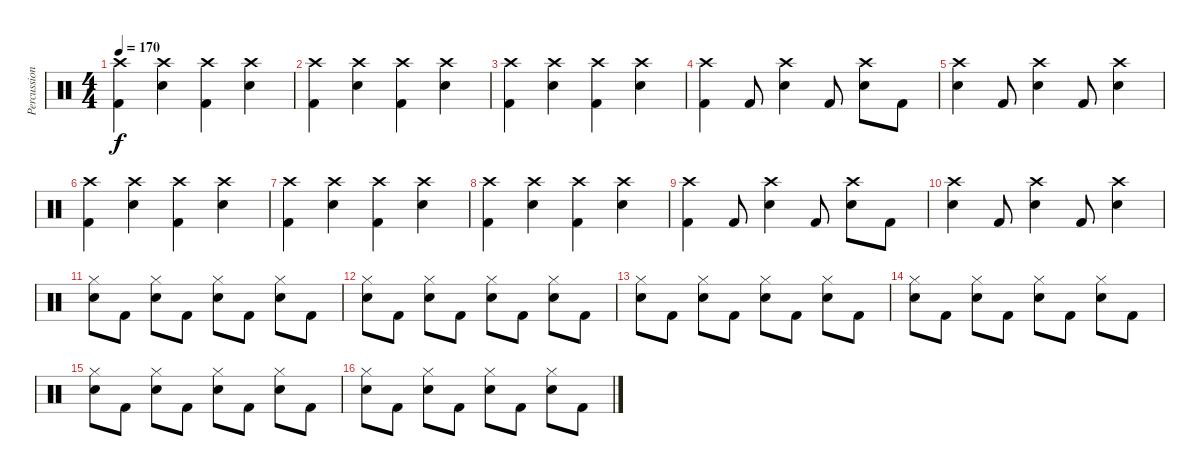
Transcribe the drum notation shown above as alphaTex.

\track ("Percussion" "Percussion") {instrument percussion}
\staff {score}
\articulation defaults
\ts (4 4)
\tempo 170
\clef neutral
\ks c
("Crash high (hit)" "Kick (hit) 2").4{dy f} ("Crash high (hit)" "Electric Snare (hit)").4 ("Crash high (hit)" "Kick (hit) 2").4 ("Crash high (hit)" "Electric Snare (hit)").4 |
("Crash high (hit)" "Kick (hit) 2").4 ("Crash high (hit)" "Electric Snare (hit)").4 ("Crash high (hit)" "Kick (hit) 2").4 ("Crash high (hit)" "Electric Snare (hit)").4 |
("Crash high (hit)" "Kick (hit) 2").4 ("Crash high (hit)" "Electric Snare (hit)").4 ("Crash high (hit)" "Kick (hit) 2").4 ("Crash high (hit)" "Electric Snare (hit)").4 |
("Crash high (hit)" "Kick (hit) 2").4 "Kick (hit) 2".8 ("Crash high (hit)" "Electric Snare (hit)").4 "Kick (hit) 2".8 ("Crash high (hit)" "Electric Snare (hit)").8 "Kick (hit) 2".8 |
("Crash high (hit)" "Electric Snare (hit)").4 "Kick (hit) 2".8 ("Crash high (hit)" "Electric Snare (hit)").4 "Kick (hit) 2".8 ("Crash high (hit)" "Electric Snare (hit)").4 |
("Crash high (hit)" "Kick (hit) 2").4 ("Crash high (hit)" "Electric Snare (hit)").4 ("Crash high (hit)" "Kick (hit) 2").4 ("Crash high (hit)" "Electric Snare (hit)").4 |
("Crash high (hit)" "Kick (hit) 2").4 ("Crash high (hit)" "Electric Snare (hit)").4 ("Crash high (hit)" "Kick (hit) 2").4 ("Crash high (hit)" "Electric Snare (hit)").4 |
("Crash high (hit)" "Kick (hit) 2").4 ("Crash high (hit)" "Electric Snare (hit)").4 ("Crash high (hit)" "Kick (hit) 2").4 ("Crash high (hit)" "Electric Snare (hit)").4 |
("Crash high (hit)" "Kick (hit) 2").4 "Kick (hit) 2".8 ("Crash high (hit)" "Electric Snare (hit)").4 "Kick (hit) 2".8 ("Crash high (hit)" "Electric Snare (hit)").8 "Kick (hit) 2".8 |
("Crash high (hit)" "Electric Snare (hit)").4 "Kick (hit) 2".8 ("Crash high (hit)" "Electric Snare (hit)").4 "Kick (hit) 2".8 ("Crash high (hit)" "Electric Snare (hit)").4 |
("Hi-Hat (closed)" "Electric Snare (hit)").8 "Kick (hit) 2".8 ("Hi-Hat (closed)" "Electric Snare (hit)").8 "Kick (hit) 2".8 ("Hi-Hat (closed)" "Electric Snare (hit)").8 "Kick (hit) 2".8 ("Hi-Hat (closed)" "Electric Snare (hit)").8 "Kick (hit) 2".8 |
("Hi-Hat (closed)" "Electric Snare (hit)").8 "Kick (hit) 2".8 ("Hi-Hat (closed)" "Electric Snare (hit)").8 "Kick (hit) 2".8 ("Hi-Hat (closed)" "Electric Snare (hit)").8 "Kick (hit) 2".8 ("Hi-Hat (closed)" "Electric Snare (hit)").8 "Kick (hit) 2".8 |
("Hi-Hat (closed)" "Electric Snare (hit)").8 "Kick (hit) 2".8 ("Hi-Hat (closed)" "Electric Snare (hit)").8 "Kick (hit) 2".8 ("Hi-Hat (closed)" "Electric Snare (hit)").8 "Kick (hit) 2".8 ("Hi-Hat (closed)" "Electric Snare (hit)").8 "Kick (hit) 2".8 |
("Hi-Hat (closed)" "Electric Snare (hit)").8 "Kick (hit) 2".8 ("Hi-Hat (closed)" "Electric Snare (hit)").8 "Kick (hit) 2".8 ("Hi-Hat (closed)" "Electric Snare (hit)").8 "Kick (hit) 2".8 ("Hi-Hat (closed)" "Electric Snare (hit)").8 "Kick (hit) 2".8 |
("Hi-Hat (closed)" "Electric Snare (hit)").8 "Kick (hit) 2".8 ("Hi-Hat (closed)" "Electric Snare (hit)").8 "Kick (hit) 2".8 ("Hi-Hat (closed)" "Electric Snare (hit)").8 "Kick (hit) 2".8 ("Hi-Hat (closed)" "Electric Snare (hit)").8 "Kick (hit) 2".8 |
("Hi-Hat (closed)" "Electric Snare (hit)").8 "Kick (hit) 2".8 ("Hi-Hat (closed)" "Electric Snare (hit)").8 "Kick (hit) 2".8 ("Hi-Hat (closed)" "Electric Snare (hit)").8 "Kick (hit) 2".8 ("Hi-Hat (closed)" "Electric Snare (hit)").8 "Kick (hit) 2".8
